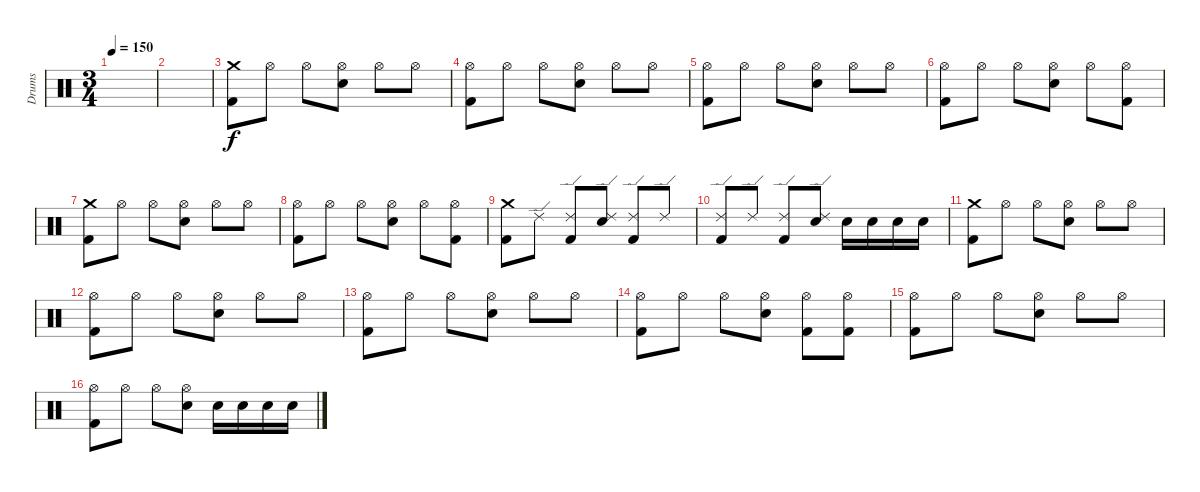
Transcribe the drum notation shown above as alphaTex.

\track ("Drums" "Drums") {instrument percussion}
\staff {score}
\articulation defaults
\ts (3 4)
\tempo 150
\clef neutral
\ks c
|
|
("Crash medium (hit)" "Kick (hit) 2").8 "Hi-Hat (open)".8 "Hi-Hat (open)".8 ("Hi-Hat (open)" "Snare (hit) 2").8 "Hi-Hat (open)".8 "Hi-Hat (open)".8 |
("Hi-Hat (open)" "Kick (hit) 2").8 "Hi-Hat (open)".8 "Hi-Hat (open)".8 ("Hi-Hat (open)" "Snare (hit) 2").8 "Hi-Hat (open)".8 "Hi-Hat (open)".8 |
("Hi-Hat (open)" "Kick (hit) 2").8 "Hi-Hat (open)".8 "Hi-Hat (open)".8 ("Hi-Hat (open)" "Snare (hit) 2").8 "Hi-Hat (open)".8 "Hi-Hat (open)".8 |
("Hi-Hat (open)" "Kick (hit) 2").8 "Hi-Hat (open)".8 "Hi-Hat (open)".8 ("Hi-Hat (open)" "Snare (hit) 2").8 "Hi-Hat (open)".8 ("Hi-Hat (open)" "Kick (hit) 2").8 |
("Crash medium (hit)" "Kick (hit) 2").8 "Hi-Hat (open)".8 "Hi-Hat (open)".8 ("Hi-Hat (open)" "Snare (hit) 2").8 "Hi-Hat (open)".8 "Hi-Hat (open)".8 |
("Hi-Hat (open)" "Kick (hit) 2").8 "Hi-Hat (open)".8 "Hi-Hat (open)".8 ("Hi-Hat (open)" "Snare (hit) 2").8 "Hi-Hat (open)".8 ("Hi-Hat (open)" "Kick (hit) 2").8 |
("Crash medium (hit)" "Kick (hit) 2").8 "Ride (edge) 2".8 ("Ride (edge) 2" "Kick (hit) 2").8 ("Ride (edge) 2" "Snare (hit) 2").8 ("Ride (edge) 2" "Kick (hit) 2").8 "Ride (edge) 2".8 |
("Ride (edge) 2" "Kick (hit) 2").8 "Ride (edge) 2".8 ("Ride (edge) 2" "Kick (hit) 2").8 ("Ride (edge) 2" "Snare (hit) 2").8 "Snare (hit) 2".16 "Snare (hit) 2".16 "Snare (hit) 2".16 "Snare (hit) 2".16 |
("Crash medium (hit)" "Kick (hit) 2").8 "Hi-Hat (open)".8 "Hi-Hat (open)".8 ("Hi-Hat (open)" "Snare (hit) 2").8 "Hi-Hat (open)".8 "Hi-Hat (open)".8 |
("Hi-Hat (open)" "Kick (hit) 2").8 "Hi-Hat (open)".8 "Hi-Hat (open)".8 ("Hi-Hat (open)" "Snare (hit) 2").8 "Hi-Hat (open)".8 "Hi-Hat (open)".8 |
("Hi-Hat (open)" "Kick (hit) 2").8 "Hi-Hat (open)".8 "Hi-Hat (open)".8 ("Hi-Hat (open)" "Snare (hit) 2").8 "Hi-Hat (open)".8 "Hi-Hat (open)".8 |
("Hi-Hat (open)" "Kick (hit) 2").8 "Hi-Hat (open)".8 "Hi-Hat (open)".8 ("Hi-Hat (open)" "Snare (hit) 2").8 ("Hi-Hat (open)" "Kick (hit) 2").8 ("Hi-Hat (open)" "Kick (hit) 2").8 |
("Hi-Hat (open)" "Kick (hit) 2").8 "Hi-Hat (open)".8 "Hi-Hat (open)".8 ("Hi-Hat (open)" "Snare (hit) 2").8 "Hi-Hat (open)".8 "Hi-Hat (open)".8 |
("Hi-Hat (open)" "Kick (hit) 2").8 "Hi-Hat (open)".8 "Hi-Hat (open)".8 ("Hi-Hat (open)" "Snare (hit) 2").8 "Snare (hit) 2".16 "Snare (hit) 2".16 "Snare (hit) 2".16 "Snare (hit) 2".16
